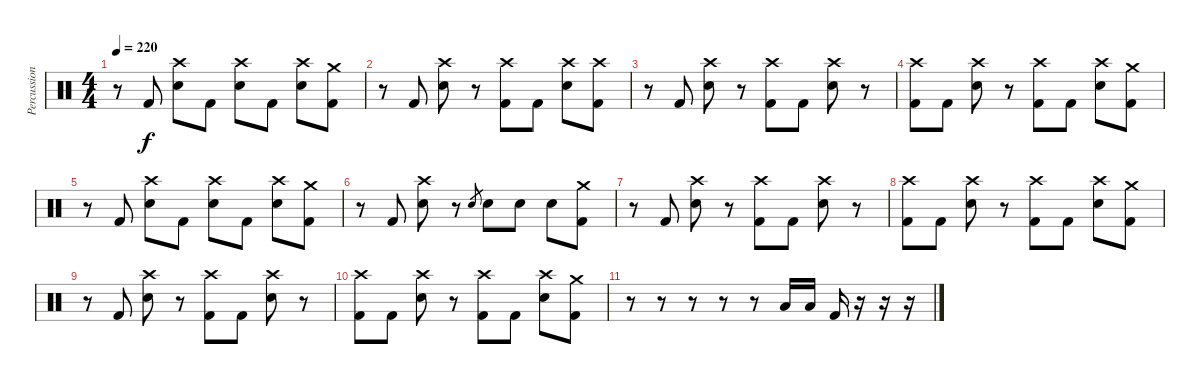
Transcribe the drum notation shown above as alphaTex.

\track ("Percussion" "Percussion") {instrument percussion}
\staff {score}
\articulation defaults
\ts (4 4)
\tempo 220
\clef neutral
\ks c
r.8{dy f} "Kick (hit) 2".8 ("Crash high (hit)" "Electric Snare (hit)").8 "Kick (hit) 2".8 ("Crash high (hit)" "Electric Snare (hit)").8 "Kick (hit) 2".8 ("Crash high (hit)" "Electric Snare (hit)").8 ("Crash medium (hit)" "Kick (hit) 2").8 |
r.8 "Kick (hit) 2".8 ("Crash high (hit)" "Electric Snare (hit)").8 r.8 ("Crash high (hit)" "Kick (hit) 2").8 "Kick (hit) 2".8 ("Crash high (hit)" "Electric Snare (hit)").8 ("Crash high (hit)" "Kick (hit) 2").8 |
r.8 "Kick (hit) 2".8 ("Crash high (hit)" "Electric Snare (hit)").8 r.8 ("Crash high (hit)" "Kick (hit) 2").8 "Kick (hit) 2".8 ("Crash high (hit)" "Electric Snare (hit)").8 r.8 |
("Crash high (hit)" "Kick (hit) 2").8 "Kick (hit) 2".8 ("Crash high (hit)" "Electric Snare (hit)").8 r.8 ("Crash high (hit)" "Kick (hit) 2").8 "Kick (hit) 2".8 ("Crash high (hit)" "Electric Snare (hit)").8 ("Crash medium (hit)" "Kick (hit) 2").8 |
r.8 "Kick (hit) 2".8 ("Crash high (hit)" "Electric Snare (hit)").8 "Kick (hit) 2".8 ("Crash high (hit)" "Electric Snare (hit)").8 "Kick (hit) 2".8 ("Crash high (hit)" "Electric Snare (hit)").8 ("Crash medium (hit)" "Kick (hit) 2").8 |
r.8 "Kick (hit) 2".8 ("Crash high (hit)" "Electric Snare (hit)").8 r.8 "Electric Snare (hit)".8{gr} "Electric Snare (hit)".8 "Electric Snare (hit)".8 "Electric Snare (hit)".8 ("Crash medium (hit)" "Kick (hit) 2").8 |
r.8 "Kick (hit) 2".8 ("Crash high (hit)" "Electric Snare (hit)").8 r.8 ("Crash high (hit)" "Kick (hit) 2").8 "Kick (hit) 2".8 ("Crash high (hit)" "Electric Snare (hit)").8 r.8 |
("Crash high (hit)" "Kick (hit) 2").8 "Kick (hit) 2".8 ("Crash high (hit)" "Electric Snare (hit)").8 r.8 ("Crash high (hit)" "Kick (hit) 2").8 "Kick (hit) 2".8 ("Crash high (hit)" "Electric Snare (hit)").8 ("Crash medium (hit)" "Kick (hit) 2").8 |
r.8 "Kick (hit) 2".8 ("Crash high (hit)" "Electric Snare (hit)").8 r.8 ("Crash high (hit)" "Kick (hit) 2").8 "Kick (hit) 2".8 ("Crash high (hit)" "Electric Snare (hit)").8 r.8 |
("Crash high (hit)" "Kick (hit) 2").8 "Kick (hit) 2".8 ("Crash high (hit)" "Electric Snare (hit)").8 r.8 ("Crash high (hit)" "Kick (hit) 2").8 "Kick (hit) 2".8 ("Crash high (hit)" "Electric Snare (hit)").8 ("Crash medium (hit)" "Kick (hit) 2").8 |
r.8 r.8 r.8 r.8 r.8 "Low Floor Tom (hit)".16 "Low Floor Tom (hit)".16 "Kick (hit) 2".16 r.16 r.16 r.16
